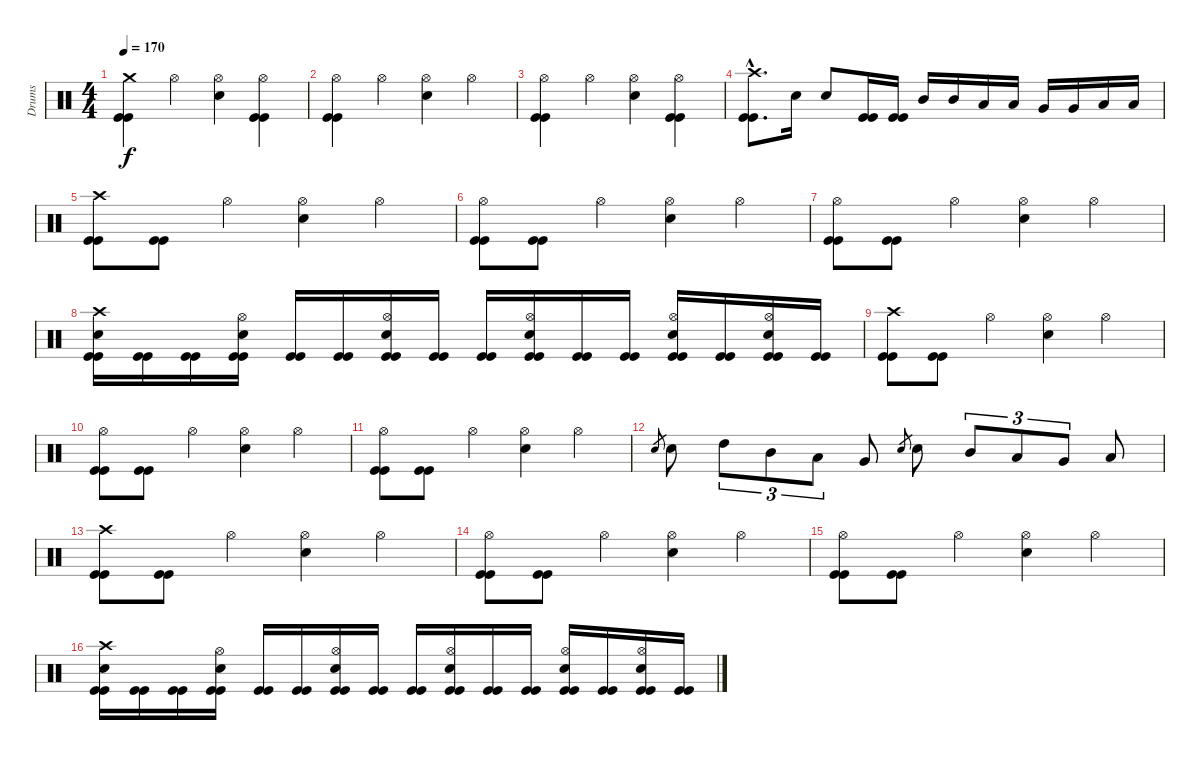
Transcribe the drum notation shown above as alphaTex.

\track ("Drums" "Drums") {instrument percussion}
\staff {score}
\articulation defaults
\ts (4 4)
\tempo 170
\clef neutral
\ks c
("Crash medium (hit)" "Kick (hit)" "Kick (hit)").4{dy f} "Hi-Hat (open)".4 ("Hi-Hat (open)" "Snare (hit) 2").4 ("Hi-Hat (open)" "Kick (hit)" "Kick (hit)").4 |
("Hi-Hat (open)" "Kick (hit)" "Kick (hit)").4 "Hi-Hat (open)".4 ("Hi-Hat (open)" "Snare (hit) 2").4 "Hi-Hat (open)".4 |
("Hi-Hat (open)" "Kick (hit)" "Kick (hit)").4 "Hi-Hat (open)".4 ("Hi-Hat (open)" "Snare (hit) 2").4 ("Hi-Hat (open)" "Kick (hit)" "Kick (hit)").4 |
("Crash high (hit)"{hac} "Kick (hit)"{hac} "Kick (hit)"{hac}).8{d} "Snare (hit) 2".16 "Snare (hit) 2".8 ("Kick (hit)" "Kick (hit)").16 ("Kick (hit)" "Kick (hit)").16 "Mid Tom (hit)".16 "Mid Tom (hit)".16 "Low Tom (hit)".16 "Low Tom (hit)".16 "Very Low Tom (hit)".16 "Very Low Tom (hit)".16 "Low Floor Tom (hit)".16 "Low Floor Tom (hit)".16 |
("Crash high (hit)" "Kick (hit)" "Kick (hit)").8 ("Kick (hit)" "Kick (hit)").8 "Hi-Hat (open)".4 ("Hi-Hat (open)" "Snare (hit) 2").4 "Hi-Hat (open)".4 |
("Hi-Hat (open)" "Kick (hit)" "Kick (hit)").8 ("Kick (hit)" "Kick (hit)").8 "Hi-Hat (open)".4 ("Hi-Hat (open)" "Snare (hit) 2").4 "Hi-Hat (open)".4 |
("Hi-Hat (open)" "Kick (hit)" "Kick (hit)").8 ("Kick (hit)" "Kick (hit)").8 "Hi-Hat (open)".4 ("Hi-Hat (open)" "Snare (hit) 2").4 "Hi-Hat (open)".4 |
("Snare (hit) 2" "Kick (hit)" "Kick (hit)" "Crash high (hit)").16 ("Kick (hit)" "Kick (hit)").16 ("Kick (hit)" "Kick (hit)").16 ("Snare (hit) 2" "Kick (hit)" "Kick (hit)" "Hi-Hat (open)").16 ("Kick (hit)" "Kick (hit)").16 ("Kick (hit)" "Kick (hit)").16 ("Snare (hit) 2" "Kick (hit)" "Kick (hit)" "Hi-Hat (open)").16 ("Kick (hit)" "Kick (hit)").16 ("Kick (hit)" "Kick (hit)").16 ("Snare (hit) 2" "Kick (hit)" "Kick (hit)" "Hi-Hat (open)").16 ("Kick (hit)" "Kick (hit)").16 ("Kick (hit)" "Kick (hit)").16 ("Snare (hit) 2" "Kick (hit)" "Kick (hit)" "Hi-Hat (open)").16 ("Kick (hit)" "Kick (hit)").16 ("Snare (hit) 2" "Kick (hit)" "Kick (hit)" "Hi-Hat (open)").16 ("Kick (hit)" "Kick (hit)").16 |
("Crash high (hit)" "Kick (hit)" "Kick (hit)").8 ("Kick (hit)" "Kick (hit)").8 "Hi-Hat (open)".4 ("Hi-Hat (open)" "Snare (hit) 2").4 "Hi-Hat (open)".4 |
("Hi-Hat (open)" "Kick (hit)" "Kick (hit)").8 ("Kick (hit)" "Kick (hit)").8 "Hi-Hat (open)".4 ("Hi-Hat (open)" "Snare (hit) 2").4 "Hi-Hat (open)".4 |
("Hi-Hat (open)" "Kick (hit)" "Kick (hit)").8 ("Kick (hit)" "Kick (hit)").8 "Hi-Hat (open)".4 ("Hi-Hat (open)" "Snare (hit) 2").4 "Hi-Hat (open)".4 |
"Snare (hit) 2".8{gr} "Snare (hit) 2".8 "High Tom (hit)".8{tu (3 2)} "Mid Tom (hit)".8{tu (3 2)} "Low Tom (hit)".8{tu (3 2)} "Very Low Tom (hit)".8 "Snare (hit) 2".8{gr} "Snare (hit) 2".8 "Mid Tom (hit)".8{tu (3 2)} "Low Tom (hit)".8{tu (3 2)} "Very Low Tom (hit)".8{tu (3 2)} "Low Floor Tom (hit)".8 |
("Crash high (hit)" "Kick (hit)" "Kick (hit)").8 ("Kick (hit)" "Kick (hit)").8 "Hi-Hat (open)".4 ("Hi-Hat (open)" "Snare (hit) 2").4 "Hi-Hat (open)".4 |
("Hi-Hat (open)" "Kick (hit)" "Kick (hit)").8 ("Kick (hit)" "Kick (hit)").8 "Hi-Hat (open)".4 ("Hi-Hat (open)" "Snare (hit) 2").4 "Hi-Hat (open)".4 |
("Hi-Hat (open)" "Kick (hit)" "Kick (hit)").8 ("Kick (hit)" "Kick (hit)").8 "Hi-Hat (open)".4 ("Hi-Hat (open)" "Snare (hit) 2").4 "Hi-Hat (open)".4 |
("Snare (hit) 2" "Kick (hit)" "Kick (hit)" "Crash high (hit)").16 ("Kick (hit)" "Kick (hit)").16 ("Kick (hit)" "Kick (hit)").16 ("Snare (hit) 2" "Kick (hit)" "Kick (hit)" "Hi-Hat (open)").16 ("Kick (hit)" "Kick (hit)").16 ("Kick (hit)" "Kick (hit)").16 ("Snare (hit) 2" "Kick (hit)" "Kick (hit)" "Hi-Hat (open)").16 ("Kick (hit)" "Kick (hit)").16 ("Kick (hit)" "Kick (hit)").16 ("Snare (hit) 2" "Kick (hit)" "Kick (hit)" "Hi-Hat (open)").16 ("Kick (hit)" "Kick (hit)").16 ("Kick (hit)" "Kick (hit)").16 ("Snare (hit) 2" "Kick (hit)" "Kick (hit)" "Hi-Hat (open)").16 ("Kick (hit)" "Kick (hit)").16 ("Snare (hit) 2" "Kick (hit)" "Kick (hit)" "Hi-Hat (open)").16 ("Kick (hit)" "Kick (hit)").16
